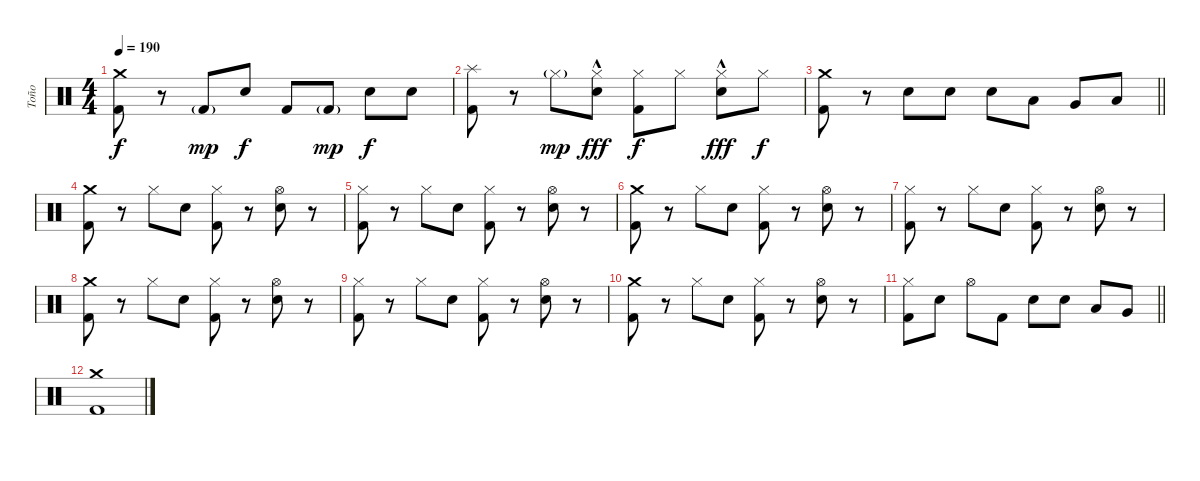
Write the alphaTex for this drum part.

\track ("Toño" "Toño") {instrument percussion}
\staff {score}
\articulation defaults
\ts (4 4)
\tempo 190
\clef neutral
\ks c
("Crash medium (hit)" "Kick (hit) 2").8{dy f} r.8 "Kick (hit) 2"{g}.8{dy mp} "Snare (hit) 2".8{dy f} "Kick (hit) 2".8 "Kick (hit) 2"{g}.8{dy mp} "Snare (hit) 2".8{dy f} "Snare (hit) 2".8 |
("Splash (hit)" "Kick (hit) 2").8 r.8 "Hi-Hat (closed)"{g}.8{dy mp} ("Hi-Hat (closed)"{hac} "Snare (hit) 2").8{dy fff} ("Hi-Hat (closed)" "Kick (hit) 2").8{dy f} "Hi-Hat (closed)".8 ("Hi-Hat (closed)"{hac} "Snare (hit) 2").8{dy fff} "Hi-Hat (closed)".8{dy f} |
\barLineRight lightlight
("Crash medium (hit)" "Kick (hit) 2").8 r.8 "Snare (hit) 2".8 "Snare (hit) 2".8 "Snare (hit) 2".8 "Low Tom (hit)".8 "Very Low Tom (hit)".8 "Low Floor Tom (hit)".8 |
("Crash medium (hit)" "Kick (hit) 2").8 r.8 "Hi-Hat (closed)".8 "Snare (hit) 2".8 ("Hi-Hat (closed)" "Kick (hit) 2").8 r.8 ("Hi-Hat (open)" "Snare (hit) 2").8 r.8 |
("Hi-Hat (closed)" "Kick (hit) 2").8 r.8 "Hi-Hat (closed)".8 "Snare (hit) 2".8 ("Hi-Hat (closed)" "Kick (hit) 2").8 r.8 ("Hi-Hat (open)" "Snare (hit) 2").8 r.8 |
("Crash medium (hit)" "Kick (hit) 2").8 r.8 "Hi-Hat (closed)".8 "Snare (hit) 2".8 ("Hi-Hat (closed)" "Kick (hit) 2").8 r.8 ("Hi-Hat (open)" "Snare (hit) 2").8 r.8 |
("Hi-Hat (closed)" "Kick (hit) 2").8 r.8 "Hi-Hat (closed)".8 "Snare (hit) 2".8 ("Hi-Hat (closed)" "Kick (hit) 2").8 r.8 ("Hi-Hat (open)" "Snare (hit) 2").8 r.8 |
("Crash medium (hit)" "Kick (hit) 2").8 r.8 "Hi-Hat (closed)".8 "Snare (hit) 2".8 ("Hi-Hat (closed)" "Kick (hit) 2").8 r.8 ("Hi-Hat (open)" "Snare (hit) 2").8 r.8 |
("Hi-Hat (closed)" "Kick (hit) 2").8 r.8 "Hi-Hat (closed)".8 "Snare (hit) 2".8 ("Hi-Hat (closed)" "Kick (hit) 2").8 r.8 ("Hi-Hat (open)" "Snare (hit) 2").8 r.8 |
("Crash medium (hit)" "Kick (hit) 2").8 r.8 "Hi-Hat (closed)".8 "Snare (hit) 2".8 ("Hi-Hat (closed)" "Kick (hit) 2").8 r.8 ("Hi-Hat (open)" "Snare (hit) 2").8 r.8 |
\barLineRight lightlight
("Hi-Hat (closed)" "Kick (hit) 2").8 "Snare (hit) 2".8 "Hi-Hat (open)".8 "Kick (hit) 2".8 "Snare (hit) 2".8 "Snare (hit) 2".8 "Low Tom (hit)".8 "Very Low Tom (hit)".8 |
("Crash medium (hit)" "Kick (hit) 2").1
